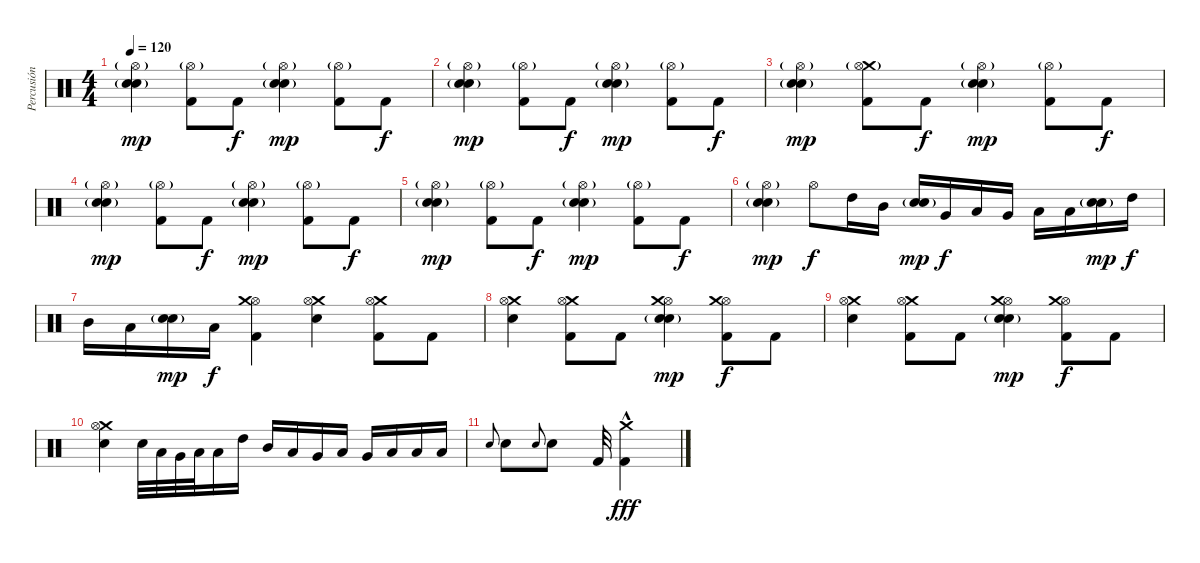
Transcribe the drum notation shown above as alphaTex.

\track ("Percusión" "Percusión") {instrument percussion}
\staff {score}
\articulation defaults
\ts (4 4)
\tempo 120
\clef neutral
\ks c
("Hi-Hat (open)"{g} "Snare (hit) 2" "Electric Snare (hit)"{g}).4{dy mp} ("Hi-Hat (open)"{g} "Kick (hit) 2").8 "Kick (hit) 2".8{dy f} ("Hi-Hat (open)"{g} "Snare (hit) 2" "Electric Snare (hit)"{g}).4{dy mp} ("Hi-Hat (open)"{g} "Kick (hit) 2").8 "Kick (hit) 2".8{dy f} |
("Hi-Hat (open)"{g} "Snare (hit) 2" "Electric Snare (hit)"{g}).4{dy mp} ("Hi-Hat (open)"{g} "Kick (hit) 2").8 "Kick (hit) 2".8{dy f} ("Hi-Hat (open)"{g} "Snare (hit) 2" "Electric Snare (hit)"{g}).4{dy mp} ("Hi-Hat (open)"{g} "Kick (hit) 2").8 "Kick (hit) 2".8{dy f} |
("Hi-Hat (open)"{g} "Snare (hit) 2" "Electric Snare (hit)"{g}).4{dy mp} ("Crash medium (hit)" "Hi-Hat (open)"{g} "Kick (hit) 2").8 "Kick (hit) 2".8{dy f} ("Hi-Hat (open)"{g} "Snare (hit) 2" "Electric Snare (hit)"{g}).4{dy mp} ("Hi-Hat (open)"{g} "Kick (hit) 2").8 "Kick (hit) 2".8{dy f} |
("Hi-Hat (open)"{g} "Snare (hit) 2" "Electric Snare (hit)"{g}).4{dy mp} ("Hi-Hat (open)"{g} "Kick (hit) 2").8 "Kick (hit) 2".8{dy f} ("Hi-Hat (open)"{g} "Snare (hit) 2" "Electric Snare (hit)"{g}).4{dy mp} ("Hi-Hat (open)"{g} "Kick (hit) 2").8 "Kick (hit) 2".8{dy f} |
("Hi-Hat (open)"{g} "Snare (hit) 2" "Electric Snare (hit)"{g}).4{dy mp} ("Hi-Hat (open)"{g} "Kick (hit) 2").8 "Kick (hit) 2".8{dy f} ("Hi-Hat (open)"{g} "Snare (hit) 2" "Electric Snare (hit)"{g}).4{dy mp} ("Hi-Hat (open)"{g} "Kick (hit) 2").8 "Kick (hit) 2".8{dy f} |
("Hi-Hat (open)"{g} "Snare (hit) 2" "Electric Snare (hit)"{g}).4{dy mp} "Hi-Hat (open)".8{dy f} "High Tom (hit)".16 "Mid Tom (hit)".16 ("Snare (hit) 2" "Electric Snare (hit)"{g}).16{dy mp} "Very Low Tom (hit)".16{dy f} "Low Floor Tom (hit)".16 "Very Low Tom (hit)".16 "Low Tom (hit)".16 "Low Floor Tom (hit)".16 ("Snare (hit) 2" "Electric Snare (hit)"{g}).16{dy mp} "High Tom (hit)".16{dy f} |
"Mid Tom (hit)".16 "Low Tom (hit)".16 ("Snare (hit) 2" "Electric Snare (hit)"{g}).16{dy mp} "Low Floor Tom (hit)".16{dy f} ("Hi-Hat (open)" "Crash medium (hit)" "Kick (hit) 2").4 ("Crash medium (hit)" "Hi-Hat (open)" "Snare (hit) 2").4 ("Crash medium (hit)" "Hi-Hat (open)" "Kick (hit) 2").8 "Kick (hit) 2".8 |
("Crash medium (hit)" "Hi-Hat (open)" "Snare (hit) 2").4 ("Crash medium (hit)" "Hi-Hat (open)" "Kick (hit) 2").8 "Kick (hit) 2".8 ("Hi-Hat (open)" "Crash medium (hit)" "Snare (hit) 2" "Electric Snare (hit)"{g}).4{dy mp} ("Hi-Hat (open)" "Crash medium (hit)" "Kick (hit) 2").8{dy f} "Kick (hit) 2".8 |
("Crash medium (hit)" "Hi-Hat (open)" "Snare (hit) 2").4 ("Crash medium (hit)" "Hi-Hat (open)" "Kick (hit) 2").8 "Kick (hit) 2".8 ("Hi-Hat (open)" "Crash medium (hit)" "Snare (hit) 2" "Electric Snare (hit)"{g}).4{dy mp} ("Hi-Hat (open)" "Crash medium (hit)" "Kick (hit) 2").8{dy f} "Kick (hit) 2".8 |
("Crash medium (hit)" "Hi-Hat (open)" "Snare (hit) 2").4 "Snare (hit) 2".32 "Low Tom (hit)".32 "Very Low Tom (hit)".32 "Low Floor Tom (hit)".32 "Low Floor Tom (hit)".16 "High Tom (hit)".16 "Mid Tom (hit)".16 "Low Tom (hit)".16 "Very Low Tom (hit)".16 "Low Floor Tom (hit)".16 "Very Low Tom (hit)".16 "Low Tom (hit)".16 "Low Floor Tom (hit)".16 "Low Tom (hit)".16 |
"Snare (hit) 2".8{gr onbeat} "Snare (hit) 2".8 "Snare (hit) 2".8{gr onbeat} "Snare (hit) 2".8 "Kick (hit) 2".32 ("Crash medium (hit)" "Kick (hit) 2"{hac}).4{dy fff}
